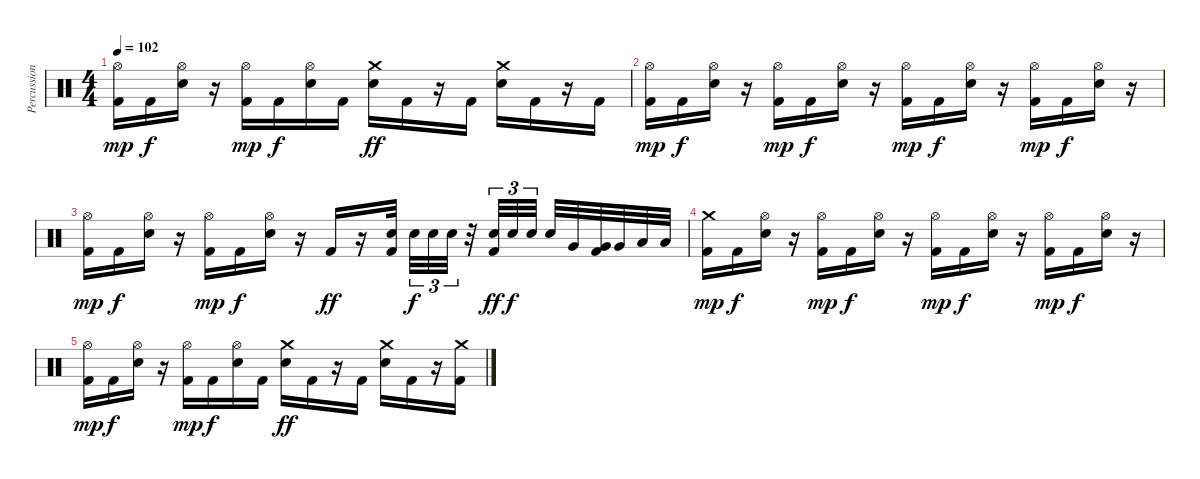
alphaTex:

\track ("Percussion" "Percussion") {instrument percussion}
\staff {score}
\articulation defaults
\ts (4 4)
\tempo 102
\clef neutral
\ks c
("Kick (hit) 2" "Hi-Hat (open)").16{dy mp} "Kick (hit) 2".16{dy f} ("Electric Snare (hit)" "Hi-Hat (open)").16 r.16 ("Kick (hit) 2" "Hi-Hat (open)").16{dy mp} "Kick (hit) 2".16{dy f} ("Electric Snare (hit)" "Hi-Hat (open)").16 "Kick (hit) 2".16 ("Electric Snare (hit)" "Crash medium (hit)").16{dy ff} "Kick (hit) 2".16 r.16 "Kick (hit) 2".16 ("Electric Snare (hit)" "Crash medium (hit)").16 "Kick (hit) 2".16 r.16 "Kick (hit) 2".16 |
("Kick (hit) 2" "Hi-Hat (open)").16{dy mp} "Kick (hit) 2".16{dy f} ("Electric Snare (hit)" "Hi-Hat (open)").16 r.16 ("Kick (hit) 2" "Hi-Hat (open)").16{dy mp} "Kick (hit) 2".16{dy f} ("Electric Snare (hit)" "Hi-Hat (open)").16 r.16 ("Kick (hit) 2" "Hi-Hat (open)").16{dy mp} "Kick (hit) 2".16{dy f} ("Electric Snare (hit)" "Hi-Hat (open)").16 r.16 ("Kick (hit) 2" "Hi-Hat (open)").16{dy mp} "Kick (hit) 2".16{dy f} ("Electric Snare (hit)" "Hi-Hat (open)").16 r.16 |
("Kick (hit) 2" "Hi-Hat (open)").16{dy mp} "Kick (hit) 2".16{dy f} ("Electric Snare (hit)" "Hi-Hat (open)").16 r.16 ("Kick (hit) 2" "Hi-Hat (open)").16{dy mp} "Kick (hit) 2".16{dy f} ("Electric Snare (hit)" "Hi-Hat (open)").16 r.16 "Kick (hit) 2".16{dy ff} r.16 ("Electric Snare (hit)" "Kick (hit) 2").32 "Electric Snare (hit)".32{tu (3 2) dy f} "Electric Snare (hit)".32{tu (3 2)} "Electric Snare (hit)".32{tu (3 2)} r.32 ("Electric Snare (hit)" "Kick (hit) 2").32{tu (3 2) dy ff} "Electric Snare (hit)".32{tu (3 2) dy f} "Electric Snare (hit)".32{tu (3 2)} "Electric Snare (hit)".32 "Very Low Tom (hit)".32 ("Very Low Tom (hit)" "Kick (hit) 2").32 "Very Low Tom (hit)".32 "Low Floor Tom (hit)".32 "Low Floor Tom (hit)".32 |
("Kick (hit) 2" "Crash medium (hit)").16{dy mp} "Kick (hit) 2".16{dy f} ("Electric Snare (hit)" "Hi-Hat (open)").16 r.16 ("Kick (hit) 2" "Hi-Hat (open)").16{dy mp} "Kick (hit) 2".16{dy f} ("Electric Snare (hit)" "Hi-Hat (open)").16 r.16 ("Kick (hit) 2" "Hi-Hat (open)").16{dy mp} "Kick (hit) 2".16{dy f} ("Electric Snare (hit)" "Hi-Hat (open)").16 r.16 ("Kick (hit) 2" "Hi-Hat (open)").16{dy mp} "Kick (hit) 2".16{dy f} ("Electric Snare (hit)" "Hi-Hat (open)").16 r.16 |
("Kick (hit) 2" "Hi-Hat (open)").16{dy mp} "Kick (hit) 2".16{dy f} ("Electric Snare (hit)" "Hi-Hat (open)").16 r.16 ("Kick (hit) 2" "Hi-Hat (open)").16{dy mp} "Kick (hit) 2".16{dy f} ("Electric Snare (hit)" "Hi-Hat (open)").16 "Kick (hit) 2".16 ("Electric Snare (hit)" "Crash medium (hit)").16{dy ff} "Kick (hit) 2".16 r.16 "Kick (hit) 2".16 ("Electric Snare (hit)" "Crash medium (hit)").16 "Kick (hit) 2".16 r.16 ("Kick (hit) 2" "Crash medium (hit)").16
